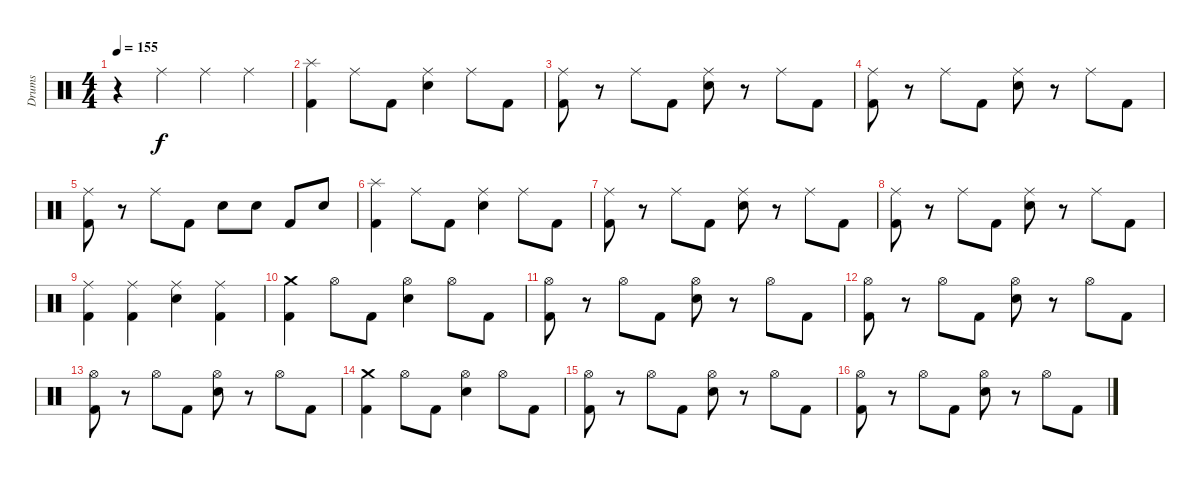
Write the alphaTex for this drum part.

\track ("Drums" "Drums") {instrument percussion}
\staff {score}
\articulation defaults
\ts (4 4)
\tempo 155
\clef neutral
\ks c
r.4{dy f} "Ride (middle)".4 "Ride (middle)".4 "Ride (middle)".4 |
("Splash (hit)" "Kick (hit) 2").4 "Ride (middle)".8 "Kick (hit) 2".8 ("Snare (hit) 2" "Ride (middle)").4 "Ride (middle)".8 "Kick (hit) 2".8 |
("Ride (middle)" "Kick (hit) 2").8 r.8 "Ride (middle)".8 "Kick (hit) 2".8 ("Snare (hit) 2" "Ride (middle)").8 r.8 "Ride (middle)".8 "Kick (hit) 2".8 |
("Ride (middle)" "Kick (hit) 2").8 r.8 "Ride (middle)".8 "Kick (hit) 2".8 ("Snare (hit) 2" "Ride (middle)").8 r.8 "Ride (middle)".8 "Kick (hit) 2".8 |
("Ride (middle)" "Kick (hit) 2").8 r.8 "Ride (middle)".8 "Kick (hit) 2".8 "Snare (hit) 2".8 "Snare (hit) 2".8 "Kick (hit) 2".8 "Snare (hit) 2".8 |
("Splash (hit)" "Kick (hit) 2").4 "Ride (middle)".8 "Kick (hit) 2".8 ("Snare (hit) 2" "Ride (middle)").4 "Ride (middle)".8 "Kick (hit) 2".8 |
("Ride (middle)" "Kick (hit) 2").8 r.8 "Ride (middle)".8 "Kick (hit) 2".8 ("Snare (hit) 2" "Ride (middle)").8 r.8 "Ride (middle)".8 "Kick (hit) 2".8 |
("Ride (middle)" "Kick (hit) 2").8 r.8 "Ride (middle)".8 "Kick (hit) 2".8 ("Snare (hit) 2" "Ride (middle)").8 r.8 "Ride (middle)".8 "Kick (hit) 2".8 |
("Ride (middle)" "Kick (hit) 2").4 ("Ride (middle)" "Kick (hit) 2").4 ("Snare (hit) 2" "Ride (middle)").4 ("Ride (middle)" "Kick (hit) 2").4 |
("Crash medium (hit)" "Kick (hit) 2").4 "Hi-Hat (open)".8 "Kick (hit) 2".8 ("Snare (hit) 2" "Hi-Hat (open)").4 "Hi-Hat (open)".8 "Kick (hit) 2".8 |
("Hi-Hat (open)" "Kick (hit) 2").8 r.8 "Hi-Hat (open)".8 "Kick (hit) 2".8 ("Snare (hit) 2" "Hi-Hat (open)").8 r.8 "Hi-Hat (open)".8 "Kick (hit) 2".8 |
("Hi-Hat (open)" "Kick (hit) 2").8 r.8 "Hi-Hat (open)".8 "Kick (hit) 2".8 ("Snare (hit) 2" "Hi-Hat (open)").8 r.8 "Hi-Hat (open)".8 "Kick (hit) 2".8 |
("Hi-Hat (open)" "Kick (hit) 2").8 r.8 "Hi-Hat (open)".8 "Kick (hit) 2".8 ("Snare (hit) 2" "Hi-Hat (open)").8 r.8 "Hi-Hat (open)".8 "Kick (hit) 2".8 |
("Crash medium (hit)" "Kick (hit) 2").4 "Hi-Hat (open)".8 "Kick (hit) 2".8 ("Snare (hit) 2" "Hi-Hat (open)").4 "Hi-Hat (open)".8 "Kick (hit) 2".8 |
("Hi-Hat (open)" "Kick (hit) 2").8 r.8 "Hi-Hat (open)".8 "Kick (hit) 2".8 ("Snare (hit) 2" "Hi-Hat (open)").8 r.8 "Hi-Hat (open)".8 "Kick (hit) 2".8 |
("Hi-Hat (open)" "Kick (hit) 2").8 r.8 "Hi-Hat (open)".8 "Kick (hit) 2".8 ("Snare (hit) 2" "Hi-Hat (open)").8 r.8 "Hi-Hat (open)".8 "Kick (hit) 2".8
